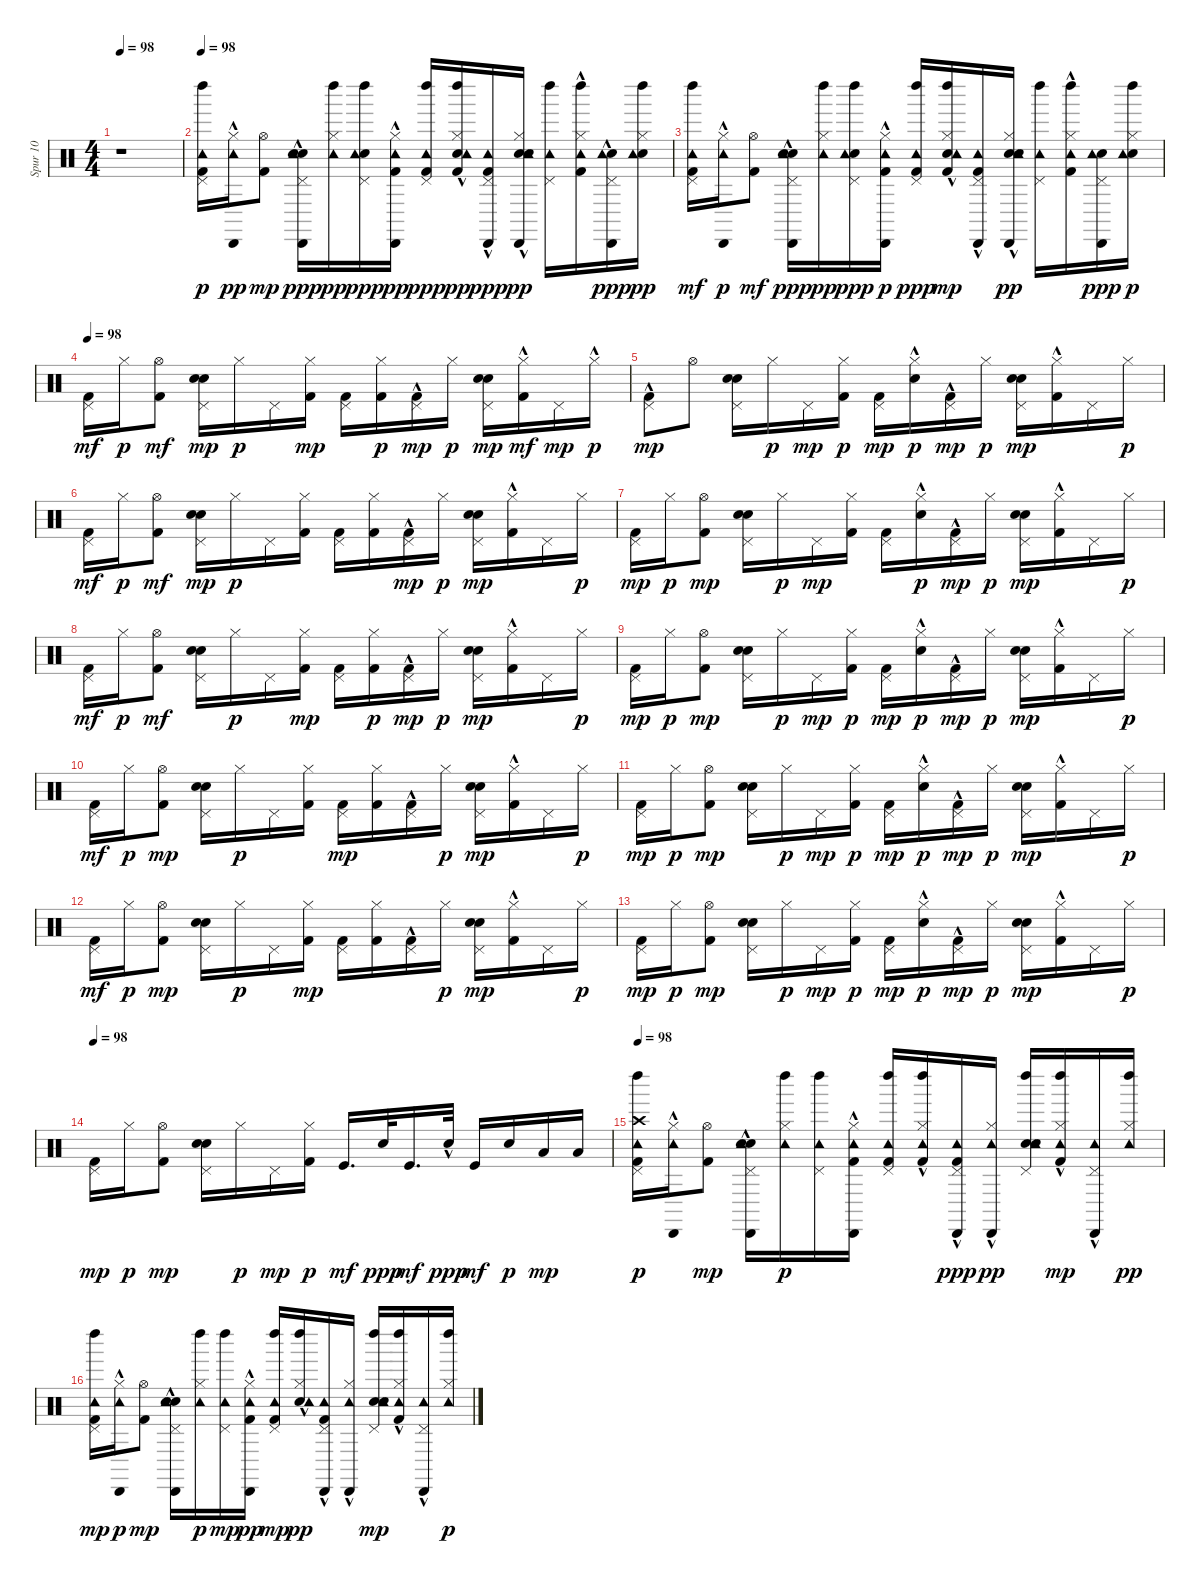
\track ("Spur 10" "Spur 10") {instrument percussion}
\staff {score}
\articulation defaults
\ts (4 4)
\tempo 98
\clef neutral
\ks c
r.1{dy p} |
\tempo 98
("Left Maraca (hit)" "Kick (hit) 2" "Pedal Hi-Hat (hit)" "Tambourine (hit)").16 ("Cabasa (hit)"{hac} "Hi-Hat (closed)" "Tambourine (hit)"{hac}).16{dy pp} ("Kick (hit) 2" "Hi-Hat (open)").8{dy mp} ("Cabasa (hit)"{hac} "Snare (hit) 2" "Hand Clap (hit)"{hac} "Pedal Hi-Hat (hit)" "Tambourine (hit)").16{dy ppp} ("Left Maraca (hit)" "Hi-Hat (closed)" "Tambourine (hit)").16{dy pp} ("Left Maraca (hit)" "Electric Snare (hit)" "Pedal Hi-Hat (hit)" "Tambourine (hit)").16{dy ppp} ("Cabasa (hit)"{hac} "Kick (hit) 2" "Hi-Hat (closed)" "Tambourine (hit)").16{dy pp} ("Left Maraca (hit)" "Kick (hit) 2" "Pedal Hi-Hat (hit)" "Tambourine (hit)").16{dy ppp} ("Left Maraca (hit)"{hac} "Snare (hit) 2" "Kick (hit) 2" "Hi-Hat (closed)" "Tambourine (hit)").16{dy pp} ("Cabasa (hit)" "Kick (hit) 2"{hac} "Pedal Hi-Hat (hit)" "Tambourine (hit)").16{dy ppp} ("Cabasa (hit)"{hac} "Snare (hit) 2" "Hand Clap (hit)" "Hi-Hat (closed)" "Tambourine (hit)").16{dy pp} ("Left Maraca (hit)" "Pedal Hi-Hat (hit)" "Tambourine (hit)").16 ("Left Maraca (hit)" "Kick (hit) 2"{hac} "Hi-Hat (closed)" "Tambourine (hit)").16 ("Cabasa (hit)"{hac} "Snare (hit) 2" "Pedal Hi-Hat (hit)" "Tambourine (hit)").16{dy ppp} ("Left Maraca (hit)" "Snare (hit) 2" "Hi-Hat (closed)" "Tambourine (hit)").16{dy pp} |
("Kick (hit) 2" "Left Maraca (hit)" "Tambourine (hit)" "Pedal Hi-Hat (hit)").16{dy mf} ("Cabasa (hit)"{hac} "Tambourine (hit)"{hac} "Hi-Hat (closed)").16{dy p} ("Hi-Hat (open)" "Kick (hit) 2").8{dy mf} ("Snare (hit) 2" "Cabasa (hit)"{hac} "Hand Clap (hit)"{hac} "Pedal Hi-Hat (hit)" "Tambourine (hit)").16{dy ppp} ("Left Maraca (hit)" "Hi-Hat (closed)" "Tambourine (hit)").16{dy pp} ("Left Maraca (hit)" "Electric Snare (hit)" "Pedal Hi-Hat (hit)" "Tambourine (hit)").16{dy ppp} ("Kick (hit) 2" "Cabasa (hit)"{hac} "Tambourine (hit)" "Hi-Hat (closed)").16{dy p} ("Left Maraca (hit)" "Pedal Hi-Hat (hit)" "Kick (hit) 2" "Tambourine (hit)").16{dy ppp} ("Hi-Hat (closed)" "Left Maraca (hit)"{hac} "Snare (hit) 2" "Tambourine (hit)" "Kick (hit) 2").16{dy mp} ("Kick (hit) 2"{hac} "Cabasa (hit)" "Tambourine (hit)" "Pedal Hi-Hat (hit)").16 ("Snare (hit) 2" "Hand Clap (hit)" "Hi-Hat (closed)" "Tambourine (hit)" "Cabasa (hit)"{hac}).16{dy pp} ("Left Maraca (hit)" "Pedal Hi-Hat (hit)" "Tambourine (hit)").16 ("Left Maraca (hit)" "Kick (hit) 2"{hac} "Hi-Hat (closed)" "Tambourine (hit)").16 ("Cabasa (hit)" "Snare (hit) 2" "Pedal Hi-Hat (hit)" "Tambourine (hit)").16{dy ppp} ("Snare (hit) 2" "Hi-Hat (closed)" "Tambourine (hit)" "Left Maraca (hit)").16{dy p} |
\tempo 98
("Kick (hit) 2" "Pedal Hi-Hat (hit)").16{dy mf} "Hi-Hat (closed)".16{dy p} ("Hi-Hat (open)" "Kick (hit) 2").8{dy mf} ("Snare (hit) 2" "Hand Clap (hit)" "Pedal Hi-Hat (hit)").16{dy mp} "Hi-Hat (closed)".16{dy p} "Pedal Hi-Hat (hit)".16 ("Hi-Hat (closed)" "Kick (hit) 2").16{dy mp} ("Pedal Hi-Hat (hit)" "Kick (hit) 2").16 ("Kick (hit) 2" "Hi-Hat (closed)").16{dy p} ("Kick (hit) 2"{hac} "Pedal Hi-Hat (hit)").16{dy mp} "Hi-Hat (closed)".16{dy p} ("Snare (hit) 2" "Pedal Hi-Hat (hit)" "Hand Clap (hit)").16{dy mp} ("Hi-Hat (closed)" "Kick (hit) 2"{hac}).16{dy mf} "Pedal Hi-Hat (hit)".16{dy mp} "Hi-Hat (closed)"{hac}.16{dy p} |
("Pedal Hi-Hat (hit)" "Kick (hit) 2"{hac}).8{dy mp} "Hi-Hat (open)".8 ("Snare (hit) 2" "Hand Clap (hit)" "Pedal Hi-Hat (hit)").16 "Hi-Hat (closed)".16{dy p} "Pedal Hi-Hat (hit)".16{dy mp} ("Kick (hit) 2" "Hi-Hat (closed)").16{dy p} ("Kick (hit) 2" "Pedal Hi-Hat (hit)").16{dy mp} ("Snare (hit) 2"{hac} "Hi-Hat (closed)").16{dy p} ("Kick (hit) 2"{hac} "Pedal Hi-Hat (hit)").16{dy mp} "Hi-Hat (closed)".16{dy p} ("Snare (hit) 2" "Hand Clap (hit)" "Pedal Hi-Hat (hit)").16{dy mp} ("Hi-Hat (closed)" "Kick (hit) 2"{hac}).16 "Pedal Hi-Hat (hit)".16 "Hi-Hat (closed)".16{dy p} |
("Kick (hit) 2" "Pedal Hi-Hat (hit)").16{dy mf} "Hi-Hat (closed)".16{dy p} ("Hi-Hat (open)" "Kick (hit) 2").8{dy mf} ("Snare (hit) 2" "Hand Clap (hit)" "Pedal Hi-Hat (hit)").16{dy mp} "Hi-Hat (closed)".16{dy p} "Pedal Hi-Hat (hit)".16 ("Kick (hit) 2" "Hi-Hat (closed)").16 ("Kick (hit) 2" "Pedal Hi-Hat (hit)").16 ("Kick (hit) 2" "Hi-Hat (closed)").16 ("Kick (hit) 2"{hac} "Pedal Hi-Hat (hit)").16{dy mp} "Hi-Hat (closed)".16{dy p} ("Pedal Hi-Hat (hit)" "Snare (hit) 2" "Hand Clap (hit)").16{dy mp} ("Kick (hit) 2"{hac} "Hi-Hat (closed)").16 "Pedal Hi-Hat (hit)".16 "Hi-Hat (closed)".16{dy p} |
("Kick (hit) 2" "Pedal Hi-Hat (hit)").16{dy mp} "Hi-Hat (closed)".16{dy p} ("Hi-Hat (open)" "Kick (hit) 2").8{dy mp} ("Snare (hit) 2" "Hand Clap (hit)" "Pedal Hi-Hat (hit)").16 "Hi-Hat (closed)".16{dy p} "Pedal Hi-Hat (hit)".16{dy mp} ("Hi-Hat (closed)" "Kick (hit) 2").16 ("Pedal Hi-Hat (hit)" "Kick (hit) 2").16 ("Hi-Hat (closed)" "Snare (hit) 2"{hac}).16{dy p} ("Kick (hit) 2"{hac} "Pedal Hi-Hat (hit)").16{dy mp} "Hi-Hat (closed)".16{dy p} ("Hand Clap (hit)" "Pedal Hi-Hat (hit)" "Snare (hit) 2").16{dy mp} ("Kick (hit) 2"{hac} "Hi-Hat (closed)").16 "Pedal Hi-Hat (hit)".16 "Hi-Hat (closed)".16{dy p} |
("Kick (hit) 2" "Pedal Hi-Hat (hit)").16{dy mf} "Hi-Hat (closed)".16{dy p} ("Hi-Hat (open)" "Kick (hit) 2").8{dy mf} ("Hand Clap (hit)" "Pedal Hi-Hat (hit)" "Snare (hit) 2").16 "Hi-Hat (closed)".16{dy p} "Pedal Hi-Hat (hit)".16 ("Hi-Hat (closed)" "Kick (hit) 2").16{dy mp} ("Pedal Hi-Hat (hit)" "Kick (hit) 2").16 ("Kick (hit) 2" "Hi-Hat (closed)").16{dy p} ("Kick (hit) 2"{hac} "Pedal Hi-Hat (hit)").16{dy mp} "Hi-Hat (closed)".16{dy p} ("Snare (hit) 2" "Hand Clap (hit)" "Pedal Hi-Hat (hit)").16{dy mp} ("Kick (hit) 2"{hac} "Hi-Hat (closed)").16 "Pedal Hi-Hat (hit)".16 "Hi-Hat (closed)".16{dy p} |
("Kick (hit) 2" "Pedal Hi-Hat (hit)").16{dy mp} "Hi-Hat (closed)".16{dy p} ("Hi-Hat (open)" "Kick (hit) 2").8{dy mp} ("Hand Clap (hit)" "Snare (hit) 2" "Pedal Hi-Hat (hit)").16 "Hi-Hat (closed)".16{dy p} "Pedal Hi-Hat (hit)".16{dy mp} ("Kick (hit) 2" "Hi-Hat (closed)").16{dy p} ("Pedal Hi-Hat (hit)" "Kick (hit) 2").16{dy mp} ("Hi-Hat (closed)" "Snare (hit) 2"{hac}).16{dy p} ("Pedal Hi-Hat (hit)" "Kick (hit) 2"{hac}).16{dy mp} "Hi-Hat (closed)".16{dy p} ("Hand Clap (hit)" "Snare (hit) 2" "Pedal Hi-Hat (hit)").16{dy mp} ("Hi-Hat (closed)" "Kick (hit) 2"{hac}).16 "Pedal Hi-Hat (hit)".16 "Hi-Hat (closed)".16{dy p} |
("Kick (hit) 2" "Pedal Hi-Hat (hit)").16{dy mf} "Hi-Hat (closed)".16{dy p} ("Kick (hit) 2" "Hi-Hat (open)").8{dy mp} ("Snare (hit) 2" "Pedal Hi-Hat (hit)" "Hand Clap (hit)").16 "Hi-Hat (closed)".16{dy p} "Pedal Hi-Hat (hit)".16 ("Kick (hit) 2" "Hi-Hat (closed)").16 ("Pedal Hi-Hat (hit)" "Kick (hit) 2").16{dy mp} ("Hi-Hat (closed)" "Kick (hit) 2").16 ("Pedal Hi-Hat (hit)" "Kick (hit) 2"{hac}).16 "Hi-Hat (closed)".16{dy p} ("Snare (hit) 2" "Hand Clap (hit)" "Pedal Hi-Hat (hit)").16{dy mp} ("Kick (hit) 2"{hac} "Hi-Hat (closed)").16 "Pedal Hi-Hat (hit)".16 "Hi-Hat (closed)".16{dy p} |
("Kick (hit) 2" "Pedal Hi-Hat (hit)").16{dy mp} "Hi-Hat (closed)".16{dy p} ("Kick (hit) 2" "Hi-Hat (open)").8{dy mp} ("Snare (hit) 2" "Pedal Hi-Hat (hit)" "Hand Clap (hit)").16 "Hi-Hat (closed)".16{dy p} "Pedal Hi-Hat (hit)".16{dy mp} ("Kick (hit) 2" "Hi-Hat (closed)").16{dy p} ("Pedal Hi-Hat (hit)" "Kick (hit) 2").16{dy mp} ("Hi-Hat (closed)" "Snare (hit) 2"{hac}).16{dy p} ("Pedal Hi-Hat (hit)" "Kick (hit) 2"{hac}).16{dy mp} "Hi-Hat (closed)".16{dy p} ("Hand Clap (hit)" "Snare (hit) 2" "Pedal Hi-Hat (hit)").16{dy mp} ("Kick (hit) 2"{hac} "Hi-Hat (closed)").16 "Pedal Hi-Hat (hit)".16 "Hi-Hat (closed)".16{dy p} |
("Kick (hit) 2" "Pedal Hi-Hat (hit)").16{dy mf} "Hi-Hat (closed)".16{dy p} ("Kick (hit) 2" "Hi-Hat (open)").8{dy mp} ("Snare (hit) 2" "Hand Clap (hit)" "Pedal Hi-Hat (hit)").16 "Hi-Hat (closed)".16{dy p} "Pedal Hi-Hat (hit)".16 ("Hi-Hat (closed)" "Kick (hit) 2").16{dy mp} ("Pedal Hi-Hat (hit)" "Kick (hit) 2").16 ("Hi-Hat (closed)" "Kick (hit) 2").16 ("Kick (hit) 2"{hac} "Pedal Hi-Hat (hit)").16 "Hi-Hat (closed)".16{dy p} ("Hand Clap (hit)" "Snare (hit) 2" "Pedal Hi-Hat (hit)").16{dy mp} ("Kick (hit) 2"{hac} "Hi-Hat (closed)").16 "Pedal Hi-Hat (hit)".16 "Hi-Hat (closed)".16{dy p} |
("Kick (hit) 2" "Pedal Hi-Hat (hit)").16{dy mp} "Hi-Hat (closed)".16{dy p} ("Kick (hit) 2" "Hi-Hat (open)").8{dy mp} ("Snare (hit) 2" "Pedal Hi-Hat (hit)" "Hand Clap (hit)").16 "Hi-Hat (closed)".16{dy p} "Pedal Hi-Hat (hit)".16{dy mp} ("Kick (hit) 2" "Hi-Hat (closed)").16{dy p} ("Kick (hit) 2" "Pedal Hi-Hat (hit)").16{dy mp} ("Hi-Hat (closed)" "Snare (hit) 2"{hac}).16{dy p} ("Kick (hit) 2"{hac} "Pedal Hi-Hat (hit)").16{dy mp} "Hi-Hat (closed)".16{dy p} ("Hand Clap (hit)" "Snare (hit) 2" "Pedal Hi-Hat (hit)").16{dy mp} ("Kick (hit) 2"{hac} "Hi-Hat (closed)").16 "Pedal Hi-Hat (hit)".16 "Hi-Hat (closed)".16{dy p} |
\tempo 98
("Kick (hit) 2" "Pedal Hi-Hat (hit)").16{dy mp} "Hi-Hat (closed)".16{dy p} ("Hi-Hat (open)" "Kick (hit) 2").8{dy mp} ("Snare (hit) 2" "Hand Clap (hit)" "Pedal Hi-Hat (hit)").16 "Hi-Hat (closed)".16{dy p} "Pedal Hi-Hat (hit)".16{dy mp} ("Kick (hit) 2" "Hi-Hat (closed)").16{dy p} "Kick (hit)".16{d dy mf} "Electric Snare (hit)".32{dy ppp} "Kick (hit)".16{d dy mf} "Electric Snare (hit)"{hac}.32{dy ppp} "Kick (hit)".16{dy mf} "Electric Snare (hit)".16{dy p} "Low Tom (hit)".16{dy mp} "Low Floor Tom (hit)".16 |
\tempo 98
("Crash high (hit)" "Tambourine (hit)" "Kick (hit) 2" "Pedal Hi-Hat (hit)" "Left Maraca (hit)").16{dy p} ("Tambourine (hit)"{hac} "Cabasa (hit)"{hac} "Hi-Hat (closed)").16 ("Kick (hit) 2" "Hi-Hat (open)").8{dy mp} ("Cabasa (hit)"{hac} "Snare (hit) 2" "Hand Clap (hit)" "Tambourine (hit)" "Pedal Hi-Hat (hit)").16 ("Left Maraca (hit)" "Tambourine (hit)" "Hi-Hat (closed)").16{dy p} ("Left Maraca (hit)" "Tambourine (hit)" "Pedal Hi-Hat (hit)").16 ("Cabasa (hit)"{hac} "Kick (hit) 2" "Tambourine (hit)" "Hi-Hat (closed)").16 ("Kick (hit) 2" "Tambourine (hit)" "Pedal Hi-Hat (hit)" "Left Maraca (hit)").16 ("Left Maraca (hit)"{hac} "Tambourine (hit)" "Kick (hit) 2" "Hi-Hat (closed)").16 ("Kick (hit) 2"{hac} "Cabasa (hit)" "Pedal Hi-Hat (hit)" "Tambourine (hit)").16{dy ppp} ("Hi-Hat (closed)" "Cabasa (hit)"{hac} "Tambourine (hit)").16{dy pp} ("Pedal Hi-Hat (hit)" "Left Maraca (hit)" "Snare (hit) 2" "Hand Clap (hit)" "Tambourine (hit)").16 ("Left Maraca (hit)" "Kick (hit) 2"{hac} "Tambourine (hit)" "Hi-Hat (closed)").16{dy mp} ("Cabasa (hit)"{hac} "Tambourine (hit)" "Pedal Hi-Hat (hit)").16 ("Left Maraca (hit)" "Hi-Hat (closed)" "Tambourine (hit)").16{dy pp} |
("Left Maraca (hit)" "Tambourine (hit)" "Kick (hit) 2" "Pedal Hi-Hat (hit)").16{dy mp} ("Tambourine (hit)"{hac} "Cabasa (hit)"{hac} "Hi-Hat (closed)").16{dy p} ("Kick (hit) 2" "Hi-Hat (open)").8{dy mp} ("Hand Clap (hit)" "Cabasa (hit)"{hac} "Snare (hit) 2" "Tambourine (hit)" "Pedal Hi-Hat (hit)").16 ("Left Maraca (hit)" "Tambourine (hit)" "Hi-Hat (closed)").16{dy p} ("Tambourine (hit)" "Left Maraca (hit)" "Pedal Hi-Hat (hit)").16{dy mp} ("Kick (hit) 2" "Cabasa (hit)"{hac} "Hi-Hat (closed)" "Tambourine (hit)").16{dy pp} ("Tambourine (hit)" "Left Maraca (hit)" "Kick (hit) 2" "Pedal Hi-Hat (hit)").16{dy mp} ("Hi-Hat (closed)" "Left Maraca (hit)"{hac} "Snare (hit) 2"{hac} "Tambourine (hit)").16{dy pp} ("Kick (hit) 2"{hac} "Tambourine (hit)" "Pedal Hi-Hat (hit)" "Cabasa (hit)").16 ("Cabasa (hit)"{hac} "Hi-Hat (closed)" "Tambourine (hit)").16 ("Left Maraca (hit)" "Snare (hit) 2" "Hand Clap (hit)" "Tambourine (hit)" "Pedal Hi-Hat (hit)").16{dy mp} ("Left Maraca (hit)" "Kick (hit) 2"{hac} "Tambourine (hit)" "Hi-Hat (closed)").16 ("Cabasa (hit)"{hac} "Tambourine (hit)" "Pedal Hi-Hat (hit)").16 ("Left Maraca (hit)" "Tambourine (hit)" "Hi-Hat (closed)").16{dy p}
